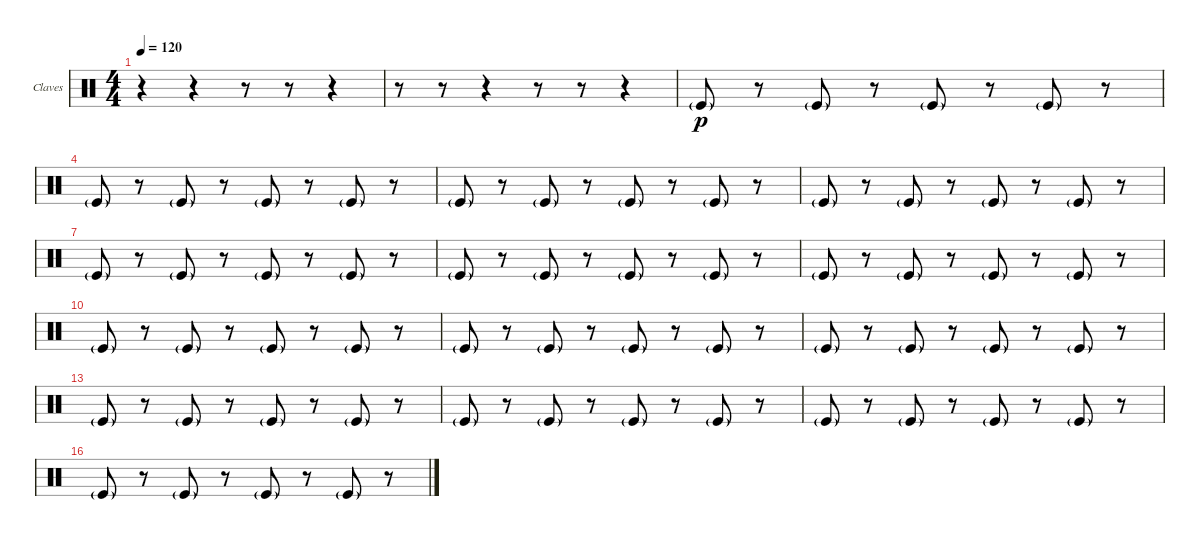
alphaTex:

\bracketExtendMode nobrackets
\firstSystemTrackNameOrientation horizontal
\otherSystemsTrackNameOrientation horizontal
\defaultBarNumberDisplay FirstOfSystem
\track ("Claves" "Claves") {instrument percussion}
\staff {score}
\articulation defaults
\ts (4 4)
\tempo 120
\clef neutral
\ks c
r.4{dy p} r.4 r.8 r.8 r.4 |
r.8 r.8 r.4 r.8 r.8 r.4 |
"Kick (hit)"{g}.8 r.8 "Kick (hit)"{g}.8 r.8 "Kick (hit)"{g}.8 r.8 "Kick (hit)"{g}.8 r.8 |
"Kick (hit)"{g}.8 r.8 "Kick (hit)"{g}.8 r.8 "Kick (hit)"{g}.8 r.8 "Kick (hit)"{g}.8 r.8 |
"Kick (hit)"{g}.8 r.8 "Kick (hit)"{g}.8 r.8 "Kick (hit)"{g}.8 r.8 "Kick (hit)"{g}.8 r.8 |
"Kick (hit)"{g}.8 r.8 "Kick (hit)"{g}.8 r.8 "Kick (hit)"{g}.8 r.8 "Kick (hit)"{g}.8 r.8 |
"Kick (hit)"{g}.8 r.8 "Kick (hit)"{g}.8 r.8 "Kick (hit)"{g}.8 r.8 "Kick (hit)"{g}.8 r.8 |
"Kick (hit)"{g}.8 r.8 "Kick (hit)"{g}.8 r.8 "Kick (hit)"{g}.8 r.8 "Kick (hit)"{g}.8 r.8 |
"Kick (hit)"{g}.8 r.8 "Kick (hit)"{g}.8 r.8 "Kick (hit)"{g}.8 r.8 "Kick (hit)"{g}.8 r.8 |
"Kick (hit)"{g}.8 r.8 "Kick (hit)"{g}.8 r.8 "Kick (hit)"{g}.8 r.8 "Kick (hit)"{g}.8 r.8 |
"Kick (hit)"{g}.8 r.8 "Kick (hit)"{g}.8 r.8 "Kick (hit)"{g}.8 r.8 "Kick (hit)"{g}.8 r.8 |
"Kick (hit)"{g}.8 r.8 "Kick (hit)"{g}.8 r.8 "Kick (hit)"{g}.8 r.8 "Kick (hit)"{g}.8 r.8 |
"Kick (hit)"{g}.8 r.8 "Kick (hit)"{g}.8 r.8 "Kick (hit)"{g}.8 r.8 "Kick (hit)"{g}.8 r.8 |
"Kick (hit)"{g}.8 r.8 "Kick (hit)"{g}.8 r.8 "Kick (hit)"{g}.8 r.8 "Kick (hit)"{g}.8 r.8 |
"Kick (hit)"{g}.8 r.8 "Kick (hit)"{g}.8 r.8 "Kick (hit)"{g}.8 r.8 "Kick (hit)"{g}.8 r.8 |
"Kick (hit)"{g}.8 r.8 "Kick (hit)"{g}.8 r.8 "Kick (hit)"{g}.8 r.8 "Kick (hit)"{g}.8 r.8
